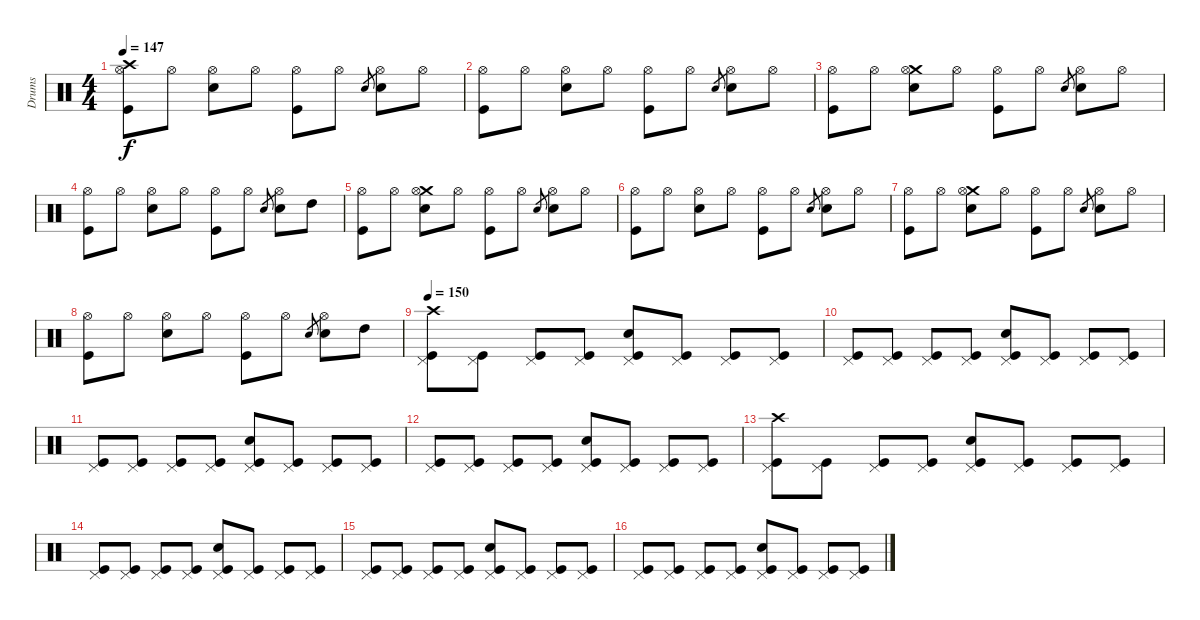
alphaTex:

\track ("Drums" "Drums") {instrument percussion}
\staff {score}
\articulation defaults
\ts (4 4)
\section ("" "")
\tempo 147
\clef neutral
\ks c
("Crash high (hit)" "Hi-Hat (open)" "Kick (hit)").8{dy f} "Hi-Hat (open)".8 ("Hi-Hat (open)" "Snare (hit) 2").8 "Hi-Hat (open)".8 ("Hi-Hat (open)" "Kick (hit)").8 "Hi-Hat (open)".8 "Snare (hit) 2".8{gr} ("Hi-Hat (open)" "Snare (hit) 2").8 "Hi-Hat (open)".8 |
("Hi-Hat (open)" "Kick (hit)").8 "Hi-Hat (open)".8 ("Hi-Hat (open)" "Snare (hit) 2").8 "Hi-Hat (open)".8 ("Hi-Hat (open)" "Kick (hit)").8 "Hi-Hat (open)".8 "Snare (hit) 2".8{gr} ("Hi-Hat (open)" "Snare (hit) 2").8 "Hi-Hat (open)".8 |
("Hi-Hat (open)" "Kick (hit)").8 "Hi-Hat (open)".8 ("Crash medium (hit)" "Hi-Hat (open)" "Snare (hit) 2").8 "Hi-Hat (open)".8 ("Hi-Hat (open)" "Kick (hit)").8 "Hi-Hat (open)".8 "Snare (hit) 2".8{gr} ("Hi-Hat (open)" "Snare (hit) 2").8 "Hi-Hat (open)".8 |
("Hi-Hat (open)" "Kick (hit)").8 "Hi-Hat (open)".8 ("Hi-Hat (open)" "Snare (hit) 2").8 "Hi-Hat (open)".8 ("Hi-Hat (open)" "Kick (hit)").8 "Hi-Hat (open)".8 "Snare (hit) 2".8{gr} ("Hi-Hat (open)" "Snare (hit) 2").8 "High Tom (hit)".8 |
("Hi-Hat (open)" "Kick (hit)").8 "Hi-Hat (open)".8 ("Crash medium (hit)" "Hi-Hat (open)" "Snare (hit) 2").8 "Hi-Hat (open)".8 ("Hi-Hat (open)" "Kick (hit)").8 "Hi-Hat (open)".8 "Snare (hit) 2".8{gr} ("Hi-Hat (open)" "Snare (hit) 2").8 "Hi-Hat (open)".8 |
("Hi-Hat (open)" "Kick (hit)").8 "Hi-Hat (open)".8 ("Hi-Hat (open)" "Snare (hit) 2").8 "Hi-Hat (open)".8 ("Hi-Hat (open)" "Kick (hit)").8 "Hi-Hat (open)".8 "Snare (hit) 2".8{gr} ("Hi-Hat (open)" "Snare (hit) 2").8 "Hi-Hat (open)".8 |
("Hi-Hat (open)" "Kick (hit)").8 "Hi-Hat (open)".8 ("Crash medium (hit)" "Hi-Hat (open)" "Snare (hit) 2").8 "Hi-Hat (open)".8 ("Hi-Hat (open)" "Kick (hit)").8 "Hi-Hat (open)".8 "Snare (hit) 2".8{gr} ("Hi-Hat (open)" "Snare (hit) 2").8 "Hi-Hat (open)".8 |
("Hi-Hat (open)" "Kick (hit)").8 "Hi-Hat (open)".8 ("Hi-Hat (open)" "Snare (hit) 2").8 "Hi-Hat (open)".8 ("Hi-Hat (open)" "Kick (hit)").8 "Hi-Hat (open)".8 "Snare (hit) 2".8{gr} ("Hi-Hat (open)" "Snare (hit) 2").8 "High Tom (hit)".8 |
\section ("" "")
\tempo 150
("Crash high (hit)" "Pedal Hi-Hat (hit)" "Kick (hit)").8 ("Pedal Hi-Hat (hit)" "Kick (hit)").8 ("Pedal Hi-Hat (hit)" "Kick (hit)").8 ("Pedal Hi-Hat (hit)" "Kick (hit)").8 ("Pedal Hi-Hat (hit)" "Snare (hit) 2" "Kick (hit)").8 ("Pedal Hi-Hat (hit)" "Kick (hit)").8 ("Pedal Hi-Hat (hit)" "Kick (hit)").8 ("Pedal Hi-Hat (hit)" "Kick (hit)").8 |
("Pedal Hi-Hat (hit)" "Kick (hit)").8 ("Pedal Hi-Hat (hit)" "Kick (hit)").8 ("Pedal Hi-Hat (hit)" "Kick (hit)").8 ("Pedal Hi-Hat (hit)" "Kick (hit)").8 ("Pedal Hi-Hat (hit)" "Snare (hit) 2" "Kick (hit)").8 ("Pedal Hi-Hat (hit)" "Kick (hit)").8 ("Pedal Hi-Hat (hit)" "Kick (hit)").8 ("Pedal Hi-Hat (hit)" "Kick (hit)").8 |
("Pedal Hi-Hat (hit)" "Kick (hit)").8 ("Pedal Hi-Hat (hit)" "Kick (hit)").8 ("Pedal Hi-Hat (hit)" "Kick (hit)").8 ("Pedal Hi-Hat (hit)" "Kick (hit)").8 ("Pedal Hi-Hat (hit)" "Snare (hit) 2" "Kick (hit)").8 ("Pedal Hi-Hat (hit)" "Kick (hit)").8 ("Pedal Hi-Hat (hit)" "Kick (hit)").8 ("Pedal Hi-Hat (hit)" "Kick (hit)").8 |
("Pedal Hi-Hat (hit)" "Kick (hit)").8 ("Pedal Hi-Hat (hit)" "Kick (hit)").8 ("Pedal Hi-Hat (hit)" "Kick (hit)").8 ("Pedal Hi-Hat (hit)" "Kick (hit)").8 ("Pedal Hi-Hat (hit)" "Snare (hit) 2" "Kick (hit)").8 ("Pedal Hi-Hat (hit)" "Kick (hit)").8 ("Pedal Hi-Hat (hit)" "Kick (hit)").8 ("Pedal Hi-Hat (hit)" "Kick (hit)").8 |
("Crash high (hit)" "Pedal Hi-Hat (hit)" "Kick (hit)").8 ("Pedal Hi-Hat (hit)" "Kick (hit)").8 ("Pedal Hi-Hat (hit)" "Kick (hit)").8 ("Pedal Hi-Hat (hit)" "Kick (hit)").8 ("Pedal Hi-Hat (hit)" "Snare (hit) 2" "Kick (hit)").8 ("Pedal Hi-Hat (hit)" "Kick (hit)").8 ("Pedal Hi-Hat (hit)" "Kick (hit)").8 ("Pedal Hi-Hat (hit)" "Kick (hit)").8 |
("Pedal Hi-Hat (hit)" "Kick (hit)").8 ("Pedal Hi-Hat (hit)" "Kick (hit)").8 ("Pedal Hi-Hat (hit)" "Kick (hit)").8 ("Pedal Hi-Hat (hit)" "Kick (hit)").8 ("Pedal Hi-Hat (hit)" "Snare (hit) 2" "Kick (hit)").8 ("Pedal Hi-Hat (hit)" "Kick (hit)").8 ("Pedal Hi-Hat (hit)" "Kick (hit)").8 ("Pedal Hi-Hat (hit)" "Kick (hit)").8 |
("Pedal Hi-Hat (hit)" "Kick (hit)").8 ("Pedal Hi-Hat (hit)" "Kick (hit)").8 ("Pedal Hi-Hat (hit)" "Kick (hit)").8 ("Pedal Hi-Hat (hit)" "Kick (hit)").8 ("Pedal Hi-Hat (hit)" "Snare (hit) 2" "Kick (hit)").8 ("Pedal Hi-Hat (hit)" "Kick (hit)").8 ("Pedal Hi-Hat (hit)" "Kick (hit)").8 ("Pedal Hi-Hat (hit)" "Kick (hit)").8 |
("Pedal Hi-Hat (hit)" "Kick (hit)").8 ("Pedal Hi-Hat (hit)" "Kick (hit)").8 ("Pedal Hi-Hat (hit)" "Kick (hit)").8 ("Pedal Hi-Hat (hit)" "Kick (hit)").8 ("Pedal Hi-Hat (hit)" "Snare (hit) 2" "Kick (hit)").8 ("Pedal Hi-Hat (hit)" "Kick (hit)").8 ("Pedal Hi-Hat (hit)" "Kick (hit)").8 ("Pedal Hi-Hat (hit)" "Kick (hit)").8
